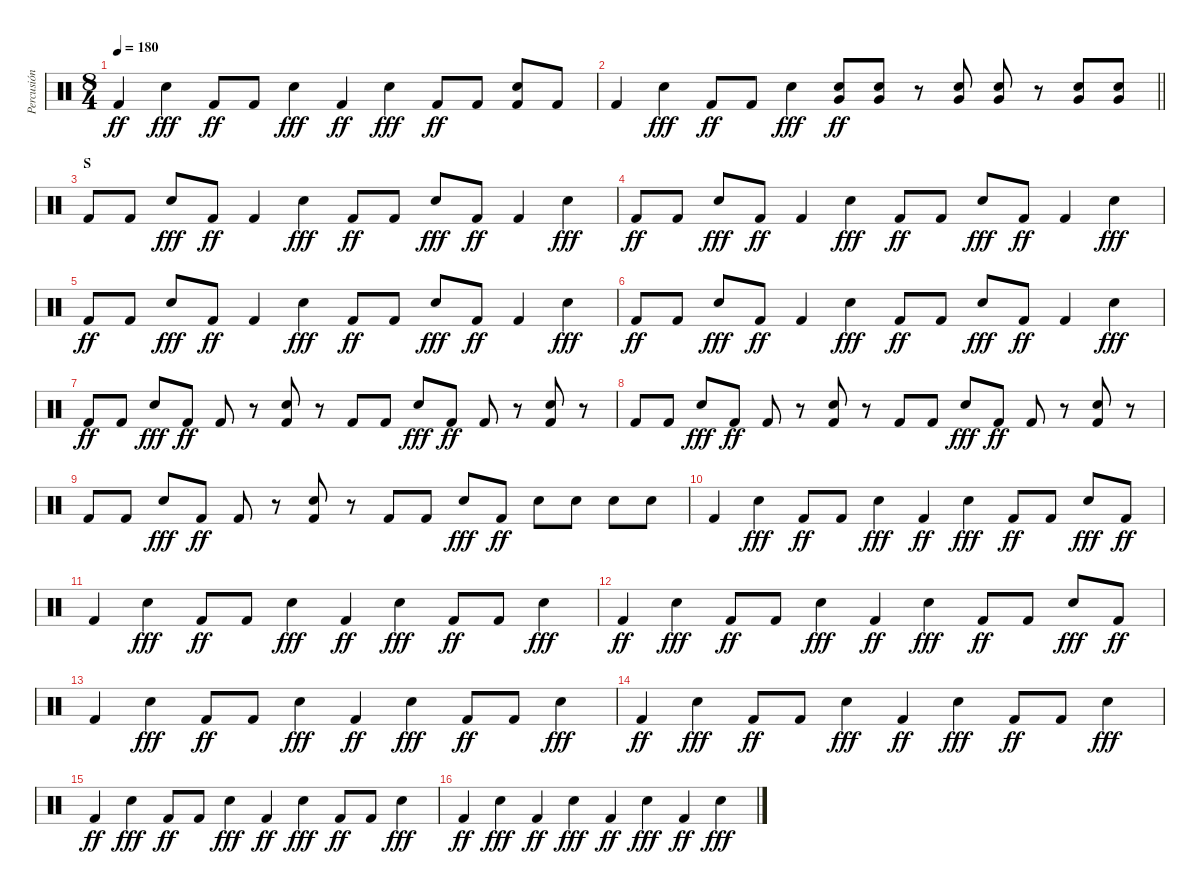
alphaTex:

\track ("Percusión" "Percusión") {instrument percussion}
\staff {score}
\articulation defaults
\ts (8 4)
\tempo 180
\clef neutral
\ks c "Kick (hit) 2".4{dy ff} "Electric Snare (hit)".4{dy fff} "Kick (hit) 2".8{dy ff} "Kick (hit) 2".8 "Electric Snare (hit)".4{dy fff} "Kick (hit) 2".4{dy ff} "Electric Snare (hit)".4{dy fff} "Kick (hit) 2".8{dy ff} "Kick (hit) 2".8
("Electric Snare (hit)" "Kick (hit) 2").8 "Kick (hit) 2".8 |
\barLineRight lightlight "Kick (hit) 2".4 "Electric Snare (hit)".4{dy fff} "Kick (hit) 2".8{dy ff} "Kick (hit) 2".8 "Electric Snare (hit)".4{dy fff}
("Electric Snare (hit)" "Very Low Tom (hit)").8{dy ff} ("Electric Snare (hit)" "Very Low Tom (hit)").8 r.8 ("Electric Snare (hit)" "Very Low Tom (hit)").8 ("Electric Snare (hit)" "Very Low Tom (hit)").8 r.8 ("Electric Snare (hit)" "Very Low Tom (hit)").8 ("Electric Snare (hit)" "Very Low Tom (hit)").8 |
\section ("" "S")
"Kick (hit) 2".8 "Kick (hit) 2".8 "Electric Snare (hit)".8{dy fff} "Kick (hit) 2".8{dy ff} "Kick (hit) 2".4 "Electric Snare (hit)".4{dy fff} "Kick (hit) 2".8{dy ff} "Kick (hit) 2".8 "Electric Snare (hit)".8{dy fff} "Kick (hit) 2".8{dy ff} "Kick (hit) 2".4 "Electric Snare (hit)".4{dy fff} |
"Kick (hit) 2".8{dy ff} "Kick (hit) 2".8 "Electric Snare (hit)".8{dy fff} "Kick (hit) 2".8{dy ff} "Kick (hit) 2".4 "Electric Snare (hit)".4{dy fff} "Kick (hit) 2".8{dy ff} "Kick (hit) 2".8 "Electric Snare (hit)".8{dy fff} "Kick (hit) 2".8{dy ff} "Kick (hit) 2".4 "Electric Snare (hit)".4{dy fff} |
"Kick (hit) 2".8{dy ff} "Kick (hit) 2".8 "Electric Snare (hit)".8{dy fff} "Kick (hit) 2".8{dy ff} "Kick (hit) 2".4 "Electric Snare (hit)".4{dy fff} "Kick (hit) 2".8{dy ff} "Kick (hit) 2".8 "Electric Snare (hit)".8{dy fff} "Kick (hit) 2".8{dy ff} "Kick (hit) 2".4 "Electric Snare (hit)".4{dy fff} |
"Kick (hit) 2".8{dy ff} "Kick (hit) 2".8 "Electric Snare (hit)".8{dy fff} "Kick (hit) 2".8{dy ff} "Kick (hit) 2".4 "Electric Snare (hit)".4{dy fff} "Kick (hit) 2".8{dy ff} "Kick (hit) 2".8 "Electric Snare (hit)".8{dy fff} "Kick (hit) 2".8{dy ff} "Kick (hit) 2".4 "Electric Snare (hit)".4{dy fff} |
"Kick (hit) 2".8{dy ff} "Kick (hit) 2".8 "Electric Snare (hit)".8{dy fff} "Kick (hit) 2".8{dy ff} "Kick (hit) 2".8 r.8 ("Electric Snare (hit)" "Kick (hit) 2").8 r.8 "Kick (hit) 2".8 "Kick (hit) 2".8 "Electric Snare (hit)".8{dy fff} "Kick (hit) 2".8{dy ff} "Kick (hit) 2".8 r.8 ("Electric Snare (hit)" "Kick (hit) 2").8 r.8 |
"Kick (hit) 2".8 "Kick (hit) 2".8 "Electric Snare (hit)".8{dy fff} "Kick (hit) 2".8{dy ff} "Kick (hit) 2".8 r.8 ("Electric Snare (hit)" "Kick (hit) 2").8 r.8 "Kick (hit) 2".8 "Kick (hit) 2".8 "Electric Snare (hit)".8{dy fff} "Kick (hit) 2".8{dy ff} "Kick (hit) 2".8 r.8 ("Electric Snare (hit)" "Kick (hit) 2").8 r.8 |
"Kick (hit) 2".8 "Kick (hit) 2".8 "Electric Snare (hit)".8{dy fff} "Kick (hit) 2".8{dy ff} "Kick (hit) 2".8 r.8 ("Electric Snare (hit)" "Kick (hit) 2").8 r.8 "Kick (hit) 2".8 "Kick (hit) 2".8 "Electric Snare (hit)".8{dy fff} "Kick (hit) 2".8{dy ff} "Electric Snare (hit)".8 "Electric Snare (hit)".8 "Electric Snare (hit)".8 "Electric Snare (hit)".8 |
"Kick (hit) 2".4 "Electric Snare (hit)".4{dy fff} "Kick (hit) 2".8{dy ff} "Kick (hit) 2".8 "Electric Snare (hit)".4{dy fff} "Kick (hit) 2".4{dy ff} "Electric Snare (hit)".4{dy fff} "Kick (hit) 2".8{dy ff} "Kick (hit) 2".8 "Electric Snare (hit)".8{dy fff} "Kick (hit) 2".8{dy ff} |
"Kick (hit) 2".4 "Electric Snare (hit)".4{dy fff} "Kick (hit) 2".8{dy ff} "Kick (hit) 2".8 "Electric Snare (hit)".4{dy fff} "Kick (hit) 2".4{dy ff} "Electric Snare (hit)".4{dy fff} "Kick (hit) 2".8{dy ff} "Kick (hit) 2".8 "Electric Snare (hit)".4{dy fff} |
"Kick (hit) 2".4{dy ff} "Electric Snare (hit)".4{dy fff} "Kick (hit) 2".8{dy ff} "Kick (hit) 2".8 "Electric Snare (hit)".4{dy fff} "Kick (hit) 2".4{dy ff} "Electric Snare (hit)".4{dy fff} "Kick (hit) 2".8{dy ff} "Kick (hit) 2".8 "Electric Snare (hit)".8{dy fff} "Kick (hit) 2".8{dy ff} |
"Kick (hit) 2".4 "Electric Snare (hit)".4{dy fff} "Kick (hit) 2".8{dy ff} "Kick (hit) 2".8 "Electric Snare (hit)".4{dy fff} "Kick (hit) 2".4{dy ff} "Electric Snare (hit)".4{dy fff} "Kick (hit) 2".8{dy ff} "Kick (hit) 2".8 "Electric Snare (hit)".4{dy fff} |
"Kick (hit) 2".4{dy ff} "Electric Snare (hit)".4{dy fff} "Kick (hit) 2".8{dy ff} "Kick (hit) 2".8 "Electric Snare (hit)".4{dy fff} "Kick (hit) 2".4{dy ff} "Electric Snare (hit)".4{dy fff} "Kick (hit) 2".8{dy ff} "Kick (hit) 2".8 "Electric Snare (hit)".4{dy fff} |
"Kick (hit) 2".4{dy ff} "Electric Snare (hit)".4{dy fff} "Kick (hit) 2".8{dy ff} "Kick (hit) 2".8 "Electric Snare (hit)".4{dy fff} "Kick (hit) 2".4{dy ff} "Electric Snare (hit)".4{dy fff} "Kick (hit) 2".8{dy ff} "Kick (hit) 2".8 "Electric Snare (hit)".4{dy fff} |
"Kick (hit) 2".4{dy ff} "Electric Snare (hit)".4{dy fff} "Kick (hit) 2".4{dy ff} "Electric Snare (hit)".4{dy fff} "Kick (hit) 2".4{dy ff} "Electric Snare (hit)".4{dy fff} "Kick (hit) 2".4{dy ff} "Electric Snare (hit)".4{dy fff}
